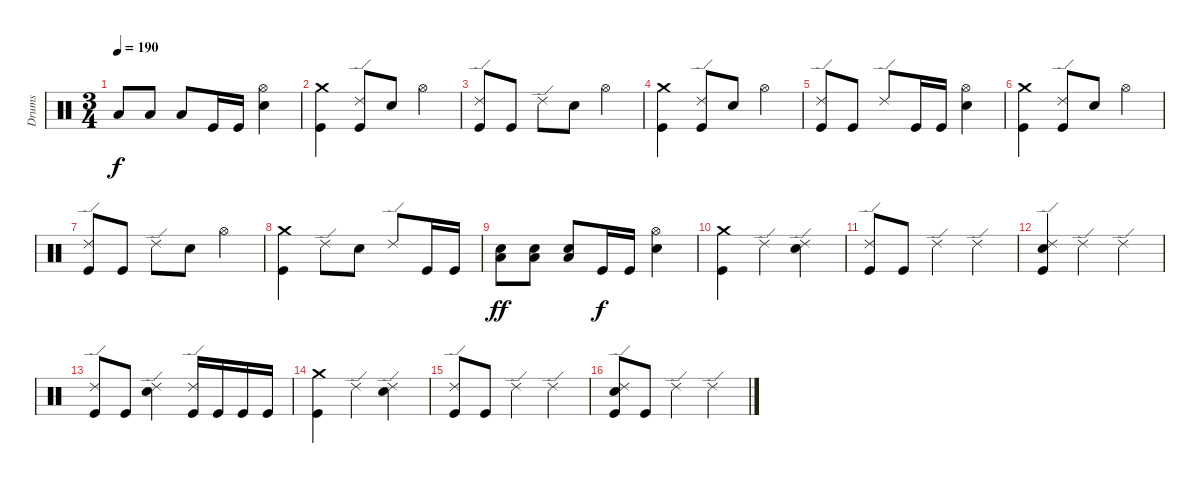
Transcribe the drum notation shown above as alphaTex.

\track ("Drums" "Drums") {instrument percussion}
\staff {score}
\articulation defaults
\ts (3 4)
\tempo 190
\clef neutral
\ks c "Low Tom (hit)".8{dy f} "Low Tom (hit)".8 "Low Tom (hit)".8 "Kick (hit)".16 "Kick (hit)".16
("Hi-Hat (open)" "Electric Snare (hit)").4 |
("Crash medium (hit)" "Kick (hit)").4 ("Ride (edge) 2" "Kick (hit)").8 "Electric Snare (hit)".8 "Hi-Hat (open)".4 |
("Ride (edge) 2" "Kick (hit)").8 "Kick (hit)".8 "Ride (edge) 2".8 "Electric Snare (hit)".8 "Hi-Hat (open)".4 |
("Crash medium (hit)" "Kick (hit)").4 ("Ride (edge) 2" "Kick (hit)").8 "Electric Snare (hit)".8 "Hi-Hat (open)".4 |
("Ride (edge) 2" "Kick (hit)").8 "Kick (hit)".8 "Ride (edge) 2".8 "Kick (hit)".16 "Kick (hit)".16 ("Hi-Hat (open)" "Electric Snare (hit)").4 |
("Crash medium (hit)" "Kick (hit)").4 ("Ride (edge) 2" "Kick (hit)").8 "Electric Snare (hit)".8 "Hi-Hat (open)".4 |
("Ride (edge) 2" "Kick (hit)").8 "Kick (hit)".8 "Ride (edge) 2".8 "Electric Snare (hit)".8 "Hi-Hat (open)".4 |
("Crash medium (hit)" "Kick (hit)").4 "Ride (edge) 2".8 "Electric Snare (hit)".8 "Ride (edge) 2".8 "Kick (hit)".16 "Kick (hit)".16 |
("Low Tom (hit)" "Electric Snare (hit)").8{dy ff} ("Low Tom (hit)" "Electric Snare (hit)").8 ("Low Tom (hit)" "Electric Snare (hit)").8 "Kick (hit)".16{dy f} "Kick (hit)".16 ("Hi-Hat (open)" "Electric Snare (hit)").4 |
("Crash medium (hit)" "Kick (hit)").4 "Ride (edge) 2".4 ("Ride (edge) 2" "Electric Snare (hit)").4 |
("Ride (edge) 2" "Kick (hit)").8 "Kick (hit)".8 "Ride (edge) 2".4 "Ride (edge) 2".4 |
("Ride (edge) 2" "Electric Snare (hit)" "Kick (hit)").4 "Ride (edge) 2".4 "Ride (edge) 2".4 |
("Ride (edge) 2" "Kick (hit)").8 "Kick (hit)".8 ("Ride (edge) 2" "Electric Snare (hit)").4 ("Ride (edge) 2" "Kick (hit)").16 "Kick (hit)".16 "Kick (hit)".16 "Kick (hit)".16 |
("Crash medium (hit)" "Kick (hit)").4 "Ride (edge) 2".4 ("Ride (edge) 2" "Electric Snare (hit)").4 |
("Ride (edge) 2" "Kick (hit)").8 "Kick (hit)".8 "Ride (edge) 2".4 "Ride (edge) 2".4 |
("Kick (hit)" "Ride (edge) 2" "Electric Snare (hit)").8 "Kick (hit)".8 "Ride (edge) 2".4 "Ride (edge) 2".4
